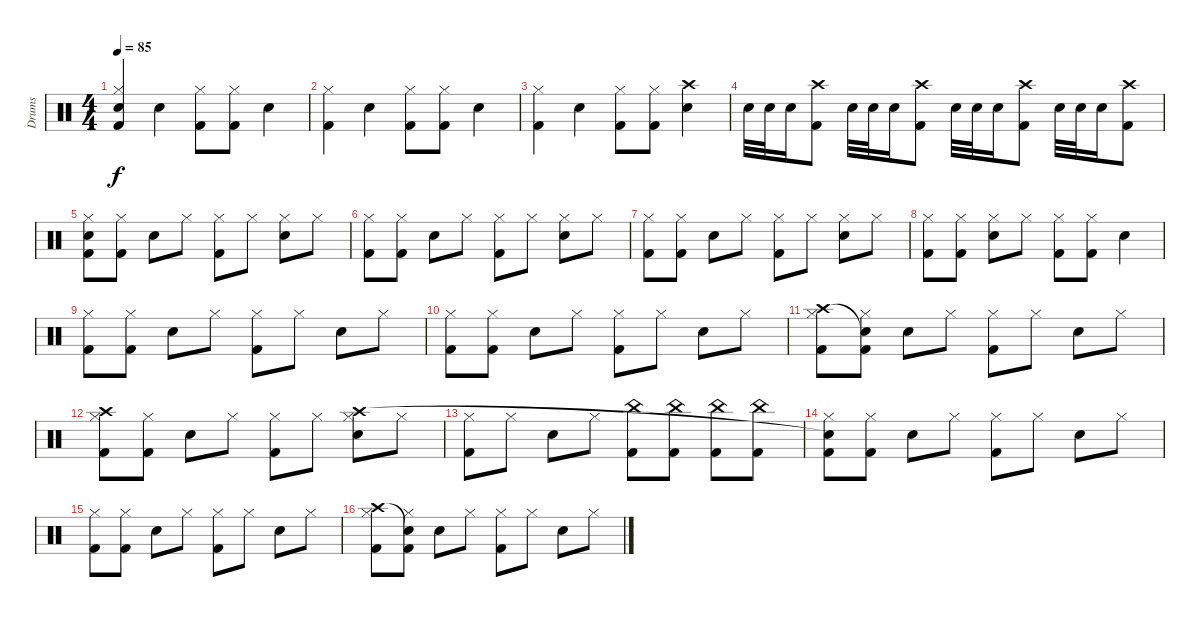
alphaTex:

\track ("Drums" "Drums") {instrument percussion}
\staff {score}
\articulation defaults
\ts (4 4)
\tempo 85
\clef neutral
\ks c
("Kick (hit) 2" "Hi-Hat (closed)" "Snare (hit)"{t}).4{dy f} "Snare (hit) 2".4 ("Kick (hit) 2" "Hi-Hat (closed)").8 ("Kick (hit) 2" "Hi-Hat (closed)").8 "Snare (hit) 2".4 |
("Kick (hit) 2" "Hi-Hat (closed)").4 "Snare (hit) 2".4 ("Kick (hit) 2" "Hi-Hat (closed)").8 ("Kick (hit) 2" "Hi-Hat (closed)").8 "Snare (hit) 2".4 |
("Kick (hit) 2" "Hi-Hat (closed)").4 "Snare (hit) 2".4 ("Kick (hit) 2" "Hi-Hat (closed)").8 ("Kick (hit) 2" "Hi-Hat (closed)").8 ("Snare (hit) 2" "Crash high (hit)").4 |
"Snare (hit) 2".32 "Snare (hit) 2".32 "Snare (hit) 2".16 ("Kick (hit) 2" "Crash high (hit)").8 "Snare (hit) 2".32 "Snare (hit) 2".32 "Snare (hit) 2".16 ("Kick (hit) 2" "Crash high (hit)").8 "Snare (hit) 2".32 "Snare (hit) 2".32 "Snare (hit) 2".16 ("Kick (hit) 2" "Crash high (hit)").8 "Snare (hit) 2".32 "Snare (hit) 2".32 "Snare (hit) 2".16 ("Kick (hit) 2" "Crash high (hit)").8 |
("Kick (hit) 2" "Hi-Hat (closed)" "Snare (hit)").8 ("Kick (hit) 2" "Hi-Hat (closed)").8 "Snare (hit) 2".8 "Hi-Hat (closed)".8 ("Kick (hit) 2" "Hi-Hat (closed)").8 "Hi-Hat (closed)".8 ("Snare (hit) 2" "Hi-Hat (closed)").8 "Hi-Hat (closed)".8 |
("Kick (hit) 2" "Hi-Hat (closed)").8 ("Kick (hit) 2" "Hi-Hat (closed)").8 "Snare (hit) 2".8 "Hi-Hat (closed)".8 ("Kick (hit) 2" "Hi-Hat (closed)").8 "Hi-Hat (closed)".8 ("Snare (hit) 2" "Hi-Hat (closed)").8 "Hi-Hat (closed)".8 |
("Kick (hit) 2" "Hi-Hat (closed)").8 ("Kick (hit) 2" "Hi-Hat (closed)").8 "Snare (hit) 2".8 "Hi-Hat (closed)".8 ("Kick (hit) 2" "Hi-Hat (closed)").8 "Hi-Hat (closed)".8 ("Snare (hit) 2" "Hi-Hat (closed)").8 "Hi-Hat (closed)".8 |
("Kick (hit) 2" "Hi-Hat (closed)").8 ("Kick (hit) 2" "Hi-Hat (closed)").8 ("Snare (hit) 2" "Hi-Hat (closed)").8 "Hi-Hat (closed)".8 ("Kick (hit) 2" "Hi-Hat (closed)").8 ("Kick (hit) 2" "Hi-Hat (closed)").8 "Snare (hit) 2".4 |
("Kick (hit) 2" "Hi-Hat (closed)").8 ("Kick (hit) 2" "Hi-Hat (closed)").8 "Snare (hit) 2".8 "Hi-Hat (closed)".8 ("Kick (hit) 2" "Hi-Hat (closed)").8 "Hi-Hat (closed)".8 "Snare (hit) 2".8 "Hi-Hat (closed)".8 |
("Kick (hit) 2" "Hi-Hat (closed)").8 ("Kick (hit) 2" "Hi-Hat (closed)").8 "Snare (hit) 2".8 "Hi-Hat (closed)".8 ("Kick (hit) 2" "Hi-Hat (closed)").8 "Hi-Hat (closed)".8 "Snare (hit) 2".8 "Hi-Hat (closed)".8 |
("Kick (hit) 2" "Hi-Hat (closed)" "Crash high (hit)").8 ("Kick (hit) 2" "Hi-Hat (closed)" "Snare (hit)"{t}).8 "Snare (hit) 2".8 "Hi-Hat (closed)".8 ("Kick (hit) 2" "Hi-Hat (closed)").8 "Hi-Hat (closed)".8 "Snare (hit) 2".8 "Hi-Hat (closed)".8 |
("Kick (hit) 2" "Hi-Hat (closed)" "Crash high (hit)").8 ("Kick (hit) 2" "Hi-Hat (closed)").8 "Snare (hit) 2".8 "Hi-Hat (closed)".8 ("Kick (hit) 2" "Hi-Hat (closed)").8 "Hi-Hat (closed)".8 ("Snare (hit) 2" "Hi-Hat (closed)" "Crash high (hit)").8 "Hi-Hat (closed)".8 |
("Kick (hit) 2" "Hi-Hat (closed)").8 "Hi-Hat (closed)".8 "Snare (hit) 2".8 "Hi-Hat (closed)".8 ("Kick (hit) 2" "China (hit)").8 ("Kick (hit) 2" "China (hit)").8 ("Kick (hit) 2" "China (hit)").8 ("Kick (hit) 2" "China (hit)").8 |
("Kick (hit) 2" "Hi-Hat (closed)" "Snare (hit)"{t}).8 ("Kick (hit) 2" "Hi-Hat (closed)").8 "Snare (hit) 2".8 "Hi-Hat (closed)".8 ("Kick (hit) 2" "Hi-Hat (closed)").8 "Hi-Hat (closed)".8 "Snare (hit) 2".8 "Hi-Hat (closed)".8 |
("Kick (hit) 2" "Hi-Hat (closed)").8 ("Kick (hit) 2" "Hi-Hat (closed)").8 "Snare (hit) 2".8 "Hi-Hat (closed)".8 ("Kick (hit) 2" "Hi-Hat (closed)").8 "Hi-Hat (closed)".8 "Snare (hit) 2".8 "Hi-Hat (closed)".8 |
("Kick (hit) 2" "Hi-Hat (closed)" "Crash high (hit)").8 ("Kick (hit) 2" "Hi-Hat (closed)" "Snare (hit)"{t}).8 "Snare (hit) 2".8 "Hi-Hat (closed)".8 ("Kick (hit) 2" "Hi-Hat (closed)").8 "Hi-Hat (closed)".8 "Snare (hit) 2".8 "Hi-Hat (closed)".8
